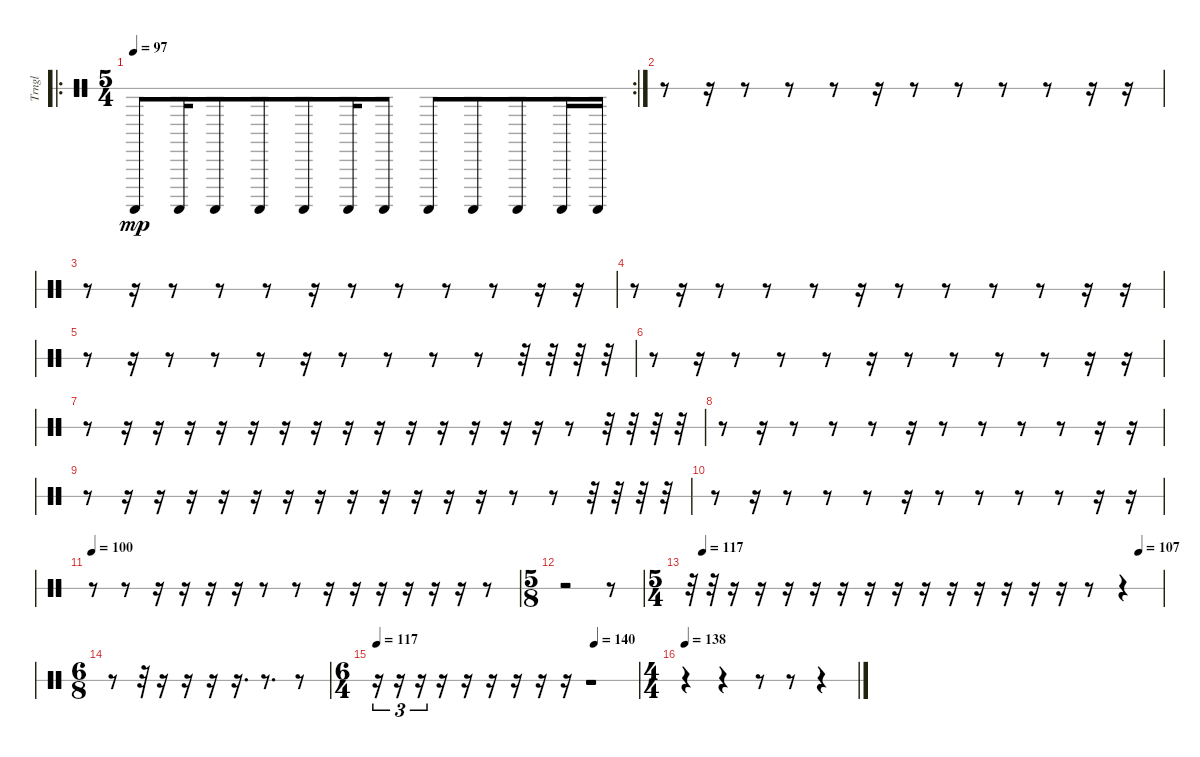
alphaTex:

\bracketExtendMode groupsimilarinstruments
\otherSystemsTrackNameOrientation horizontal
\track ("Triangle" "Trngl") {instrument percussion}
\staff {score 1}
\articulation defaults
\ro
\rc 2
\ts (5 4)
\beaming (8 6 4)
\tempo 97
\clef neutral
\ks c "Triangle (hit)".8{dy mp beam Up} "Triangle (hit)".16{beam Up} "Triangle (hit)".8{beam Up} "Triangle (hit)".8{beam Up} "Triangle (hit)".8{beam Up} "Triangle (hit)".16{beam Up} "Triangle (hit)".8{beam Up} "Triangle (hit)".8{beam Up} "Triangle (hit)".8{beam Up} "Triangle (hit)".8{beam Up} "Triangle (hit)".16{beam Up} "Triangle (hit)".16{beam Up}
|
r.8{beam Down} r.16{beam Down} r.8{beam Down} r.8{beam Down} r.8{beam Down} r.16{beam Down} r.8{beam Down} r.8{beam Down} r.8{beam Down} r.8{beam Down} r.16{beam Down} r.16{beam Down} |
r.8{beam Down} r.16{beam Down} r.8{beam Down} r.8{beam Down} r.8{beam Down} r.16{beam Down} r.8{beam Down} r.8{beam Down} r.8{beam Down} r.8{beam Down} r.16{beam Down} r.16{beam Down} |
r.8{beam Down} r.16{beam Down} r.8{beam Down} r.8{beam Down} r.8{beam Down} r.16{beam Down} r.8{beam Down} r.8{beam Down} r.8{beam Down} r.8{beam Down} r.16{beam Down} r.16{beam Down} |
r.8{beam Down} r.16{beam Down} r.8{beam Down} r.8{beam Down} r.8{beam Down} r.16{beam Down} r.8{beam Down} r.8{beam Down} r.8{beam Down} r.8{beam Down} r.32{beam Down} r.32{beam Down} r.32{beam Down} r.32{beam Down} |
r.8{beam Down} r.16{beam Down} r.8{beam Down} r.8{beam Down} r.8{beam Down} r.16{beam Down} r.8{beam Down} r.8{beam Down} r.8{beam Down} r.8{beam Down} r.16{beam Down} r.16{beam Down} |
r.8{beam Down} r.16{beam Down} r.16{beam Down} r.16{beam Down} r.16{beam Down} r.16{beam Down} r.16{beam Down} r.16{beam Down} r.16{beam Down} r.16{beam Down} r.16{beam Down} r.16{beam Down} r.16{beam Down} r.16{beam Down} r.16{beam Down} r.8{beam Down} r.32{beam Down} r.32{beam Down} r.32{beam Down} r.32{beam Down} |
r.8{beam Down} r.16{beam Down} r.8{beam Down} r.8{beam Down} r.8{beam Down} r.16{beam Down} r.8{beam Down} r.8{beam Down} r.8{beam Down} r.8{beam Down} r.16{beam Down} r.16{beam Down} |
r.8{beam Down} r.16{beam Down} r.16{beam Down} r.16{beam Down} r.16{beam Down} r.16{beam Down} r.16{beam Down} r.16{beam Down} r.16{beam Down} r.16{beam Down} r.16{beam Down} r.16{beam Down} r.16{beam Down} r.8{beam Down} r.8{beam Down} r.32{beam Down} r.32{beam Down} r.32{beam Down} r.32{beam Down} |
r.8{beam Down} r.16{beam Down} r.8{beam Down} r.8{beam Down} r.8{beam Down} r.16{beam Down} r.8{beam Down} r.8{beam Down} r.8{beam Down} r.8{beam Down} r.16{beam Down} r.16{beam Down} |
\tempo 100
r.8{beam Down} r.8{beam Down} r.16{beam Down} r.16{beam Down} r.16{beam Down} r.16{beam Down} r.8{beam Down} r.8{beam Down} r.16{beam Down} r.16{beam Down} r.16{beam Down} r.16{beam Down} r.16{beam Down} r.16{beam Down} r.8{beam Down} |
\ts (5 8)
\beaming (8 3 2)
r.2{beam Down} r.8{beam Down} |
\ts (5 4)
\beaming (8 6 4)
\tempo (117 0.025)
\tempo (107 0.95)
r.32{beam Down} r.32{beam Down} r.16{beam Down} r.16{beam Down} r.16{beam Down} r.16{beam Down} r.16{beam Down} r.16{beam Down} r.16{beam Down} r.16{beam Down} r.16{beam Down} r.16{beam Down} r.16{beam Down} r.16{beam Down} r.16{beam Down} r.8{beam Down} r.4{beam Down} |
\ts (6 8)
\beaming (8 3 3)
r.8{beam Down} r.32{beam Down} r.16{beam Down} r.16{beam Down} r.16{beam Down} r.16{d beam Down} r.8{d beam Down} r.8{beam Down} |
\ts (6 4)
\beaming (8 6 6)
\tempo 117
\tempo (140 0.833333)
r.16{tu (3 2) beam Down} r.16{tu (3 2) beam Down} r.16{tu (3 2) beam Down} r.16{beam Down} r.16{beam Down} r.16{beam Down} r.16{beam Down} r.16{beam Down} r.16{beam Down} r.1{beam Down} |
\ts (4 4)
\beaming (8 2 2 2 2)
\tempo 138
r.4{beam Down} r.4{beam Down} r.8{beam Down} r.8{beam Down} r.4{beam Down}
